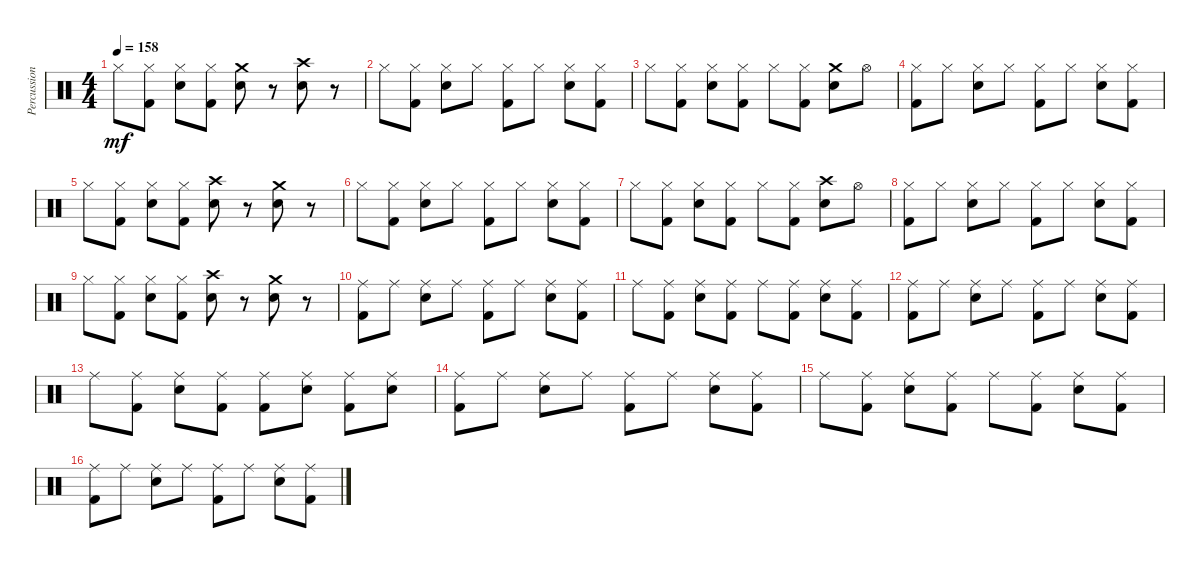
\track ("Percussions" "Percussion") {instrument percussion}
\staff {score}
\articulation defaults
\ts (4 4)
\tempo 158
\clef neutral
\ks c "Hi-Hat (closed)".8{dy mf}
("Hi-Hat (closed)" "Kick (hit) 2").8 ("Hi-Hat (closed)" "Electric Snare (hit)").8 ("Hi-Hat (closed)" "Kick (hit) 2").8 ("Crash medium (hit)" "Electric Snare (hit)").8 r.8 ("Crash high (hit)" "Electric Snare (hit)").8 r.8 |
"Hi-Hat (closed)".8 ("Hi-Hat (closed)" "Kick (hit) 2").8 ("Hi-Hat (closed)" "Electric Snare (hit)").8 "Hi-Hat (closed)".8 ("Hi-Hat (closed)" "Kick (hit) 2").8 "Hi-Hat (closed)".8 ("Hi-Hat (closed)" "Electric Snare (hit)").8 ("Hi-Hat (closed)" "Kick (hit) 2").8 |
"Hi-Hat (closed)".8 ("Hi-Hat (closed)" "Kick (hit) 2").8 ("Hi-Hat (closed)" "Electric Snare (hit)").8 ("Hi-Hat (closed)" "Kick (hit) 2").8 "Hi-Hat (closed)".8 ("Hi-Hat (closed)" "Kick (hit) 2").8 ("Crash medium (hit)" "Electric Snare (hit)").8 "Hi-Hat (open)".8 |
("Hi-Hat (closed)" "Kick (hit) 2").8 "Hi-Hat (closed)".8 ("Hi-Hat (closed)" "Electric Snare (hit)").8 "Hi-Hat (closed)".8 ("Hi-Hat (closed)" "Kick (hit) 2").8 "Hi-Hat (closed)".8 ("Hi-Hat (closed)" "Electric Snare (hit)").8 ("Hi-Hat (closed)" "Kick (hit) 2").8 |
"Hi-Hat (closed)".8 ("Hi-Hat (closed)" "Kick (hit) 2").8 ("Hi-Hat (closed)" "Electric Snare (hit)").8 ("Hi-Hat (closed)" "Kick (hit) 2").8 ("Crash high (hit)" "Electric Snare (hit)").8 r.8 ("Crash medium (hit)" "Electric Snare (hit)").8 r.8 |
"Hi-Hat (closed)".8 ("Hi-Hat (closed)" "Kick (hit) 2").8 ("Hi-Hat (closed)" "Electric Snare (hit)").8 "Hi-Hat (closed)".8 ("Hi-Hat (closed)" "Kick (hit) 2").8 "Hi-Hat (closed)".8 ("Hi-Hat (closed)" "Electric Snare (hit)").8 ("Hi-Hat (closed)" "Kick (hit) 2").8 |
"Hi-Hat (closed)".8 ("Hi-Hat (closed)" "Kick (hit) 2").8 ("Hi-Hat (closed)" "Electric Snare (hit)").8 ("Hi-Hat (closed)" "Kick (hit) 2").8 "Hi-Hat (closed)".8 ("Hi-Hat (closed)" "Kick (hit) 2").8 ("Crash high (hit)" "Electric Snare (hit)").8 "Hi-Hat (open)".8 |
("Hi-Hat (closed)" "Kick (hit) 2").8 "Hi-Hat (closed)".8 ("Hi-Hat (closed)" "Electric Snare (hit)").8 "Hi-Hat (closed)".8 ("Hi-Hat (closed)" "Kick (hit) 2").8 "Hi-Hat (closed)".8 ("Hi-Hat (closed)" "Electric Snare (hit)").8 ("Hi-Hat (closed)" "Kick (hit) 2").8 |
"Hi-Hat (closed)".8 ("Hi-Hat (closed)" "Kick (hit) 2").8 ("Hi-Hat (closed)" "Electric Snare (hit)").8 ("Hi-Hat (closed)" "Kick (hit) 2").8 ("Crash high (hit)" "Electric Snare (hit)").8 r.8 ("Crash medium (hit)" "Electric Snare (hit)").8 r.8 |
("Ride (middle)" "Kick (hit) 2").8 "Ride (middle)".8 ("Ride (middle)" "Electric Snare (hit)").8 "Ride (middle)".8 ("Ride (middle)" "Kick (hit) 2").8 "Ride (middle)".8 ("Ride (middle)" "Electric Snare (hit)").8 ("Ride (middle)" "Kick (hit) 2").8 |
"Ride (middle)".8 ("Ride (middle)" "Kick (hit) 2").8 ("Ride (middle)" "Electric Snare (hit)").8 ("Ride (middle)" "Kick (hit) 2").8 "Ride (middle)".8 ("Ride (middle)" "Kick (hit) 2").8 ("Ride (middle)" "Electric Snare (hit)").8 ("Ride (middle)" "Kick (hit) 2").8 |
("Ride (middle)" "Kick (hit) 2").8 "Ride (middle)".8 ("Ride (middle)" "Electric Snare (hit)").8 "Ride (middle)".8 ("Ride (middle)" "Kick (hit) 2").8 "Ride (middle)".8 ("Ride (middle)" "Electric Snare (hit)").8 ("Ride (middle)" "Kick (hit) 2").8 |
"Ride (middle)".8 ("Ride (middle)" "Kick (hit) 2").8 ("Ride (middle)" "Electric Snare (hit)").8 ("Ride (middle)" "Kick (hit) 2").8 ("Ride (middle)" "Kick (hit) 2").8 ("Ride (middle)" "Electric Snare (hit)").8 ("Ride (middle)" "Kick (hit) 2").8 ("Ride (middle)" "Electric Snare (hit)").8 |
("Ride (middle)" "Kick (hit) 2").8 "Ride (middle)".8 ("Ride (middle)" "Electric Snare (hit)").8 "Ride (middle)".8 ("Ride (middle)" "Kick (hit) 2").8 "Ride (middle)".8 ("Ride (middle)" "Electric Snare (hit)").8 ("Ride (middle)" "Kick (hit) 2").8 |
"Ride (middle)".8 ("Ride (middle)" "Kick (hit) 2").8 ("Ride (middle)" "Electric Snare (hit)").8 ("Ride (middle)" "Kick (hit) 2").8 "Ride (middle)".8 ("Ride (middle)" "Kick (hit) 2").8 ("Ride (middle)" "Electric Snare (hit)").8 ("Ride (middle)" "Kick (hit) 2").8 |
("Ride (middle)" "Kick (hit) 2").8 "Ride (middle)".8 ("Ride (middle)" "Electric Snare (hit)").8 "Ride (middle)".8 ("Ride (middle)" "Kick (hit) 2").8 "Ride (middle)".8 ("Ride (middle)" "Electric Snare (hit)").8 ("Ride (middle)" "Kick (hit) 2").8
